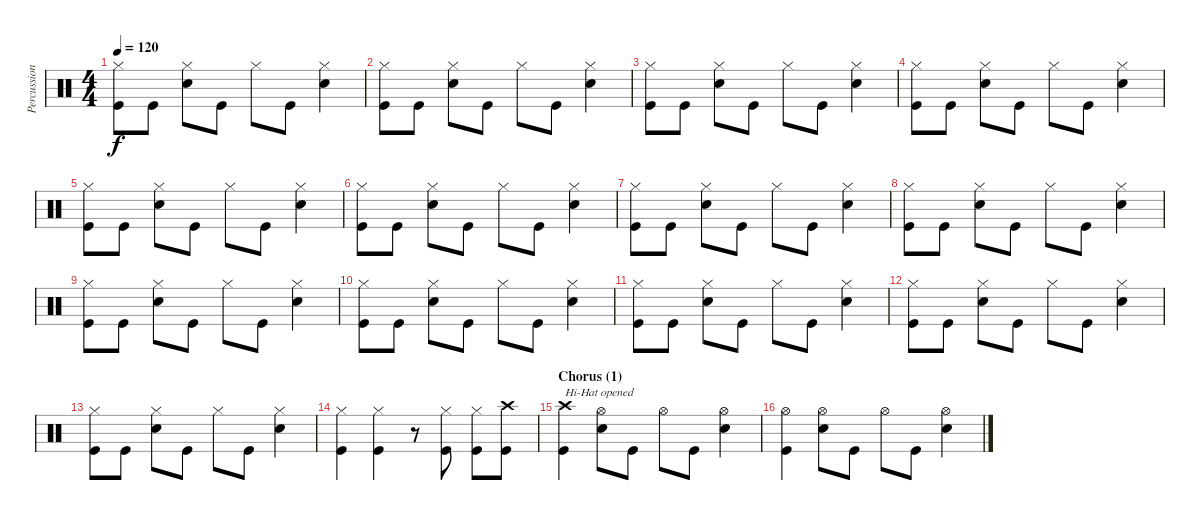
\track ("Percussion" "Percussion") {instrument percussion}
\staff {score}
\articulation defaults
\ts (4 4)
\tempo 120
\clef neutral
\ks c
("Hi-Hat (closed)" "Kick (hit)").8{dy f} "Kick (hit)".8 ("Hi-Hat (closed)" "Snare (hit) 2").8 "Kick (hit)".8 "Hi-Hat (closed)".8 "Kick (hit)".8 ("Hi-Hat (closed)" "Snare (hit) 2").4 |
("Hi-Hat (closed)" "Kick (hit)").8 "Kick (hit)".8 ("Hi-Hat (closed)" "Snare (hit) 2").8 "Kick (hit)".8 "Hi-Hat (closed)".8 "Kick (hit)".8 ("Hi-Hat (closed)" "Snare (hit) 2").4 |
("Hi-Hat (closed)" "Kick (hit)").8 "Kick (hit)".8 ("Hi-Hat (closed)" "Snare (hit) 2").8 "Kick (hit)".8 "Hi-Hat (closed)".8 "Kick (hit)".8 ("Hi-Hat (closed)" "Snare (hit) 2").4 |
("Hi-Hat (closed)" "Kick (hit)").8 "Kick (hit)".8 ("Hi-Hat (closed)" "Snare (hit) 2").8 "Kick (hit)".8 "Hi-Hat (closed)".8 "Kick (hit)".8 ("Hi-Hat (closed)" "Snare (hit) 2").4 |
("Hi-Hat (closed)" "Kick (hit)").8 "Kick (hit)".8 ("Hi-Hat (closed)" "Snare (hit) 2").8 "Kick (hit)".8 "Hi-Hat (closed)".8 "Kick (hit)".8 ("Hi-Hat (closed)" "Snare (hit) 2").4 |
("Hi-Hat (closed)" "Kick (hit)").8 "Kick (hit)".8 ("Hi-Hat (closed)" "Snare (hit) 2").8 "Kick (hit)".8 "Hi-Hat (closed)".8 "Kick (hit)".8 ("Hi-Hat (closed)" "Snare (hit) 2").4 |
("Hi-Hat (closed)" "Kick (hit)").8 "Kick (hit)".8 ("Hi-Hat (closed)" "Snare (hit) 2").8 "Kick (hit)".8 "Hi-Hat (closed)".8 "Kick (hit)".8 ("Hi-Hat (closed)" "Snare (hit) 2").4 |
("Hi-Hat (closed)" "Kick (hit)").8 "Kick (hit)".8 ("Hi-Hat (closed)" "Snare (hit) 2").8 "Kick (hit)".8 "Hi-Hat (closed)".8 "Kick (hit)".8 ("Hi-Hat (closed)" "Snare (hit) 2").4 |
("Hi-Hat (closed)" "Kick (hit)").8 "Kick (hit)".8 ("Hi-Hat (closed)" "Snare (hit) 2").8 "Kick (hit)".8 "Hi-Hat (closed)".8 "Kick (hit)".8 ("Hi-Hat (closed)" "Snare (hit) 2").4 |
("Hi-Hat (closed)" "Kick (hit)").8 "Kick (hit)".8 ("Hi-Hat (closed)" "Snare (hit) 2").8 "Kick (hit)".8 "Hi-Hat (closed)".8 "Kick (hit)".8 ("Hi-Hat (closed)" "Snare (hit) 2").4 |
("Hi-Hat (closed)" "Kick (hit)").8 "Kick (hit)".8 ("Hi-Hat (closed)" "Snare (hit) 2").8 "Kick (hit)".8 "Hi-Hat (closed)".8 "Kick (hit)".8 ("Hi-Hat (closed)" "Snare (hit) 2").4 |
("Hi-Hat (closed)" "Kick (hit)").8 "Kick (hit)".8 ("Hi-Hat (closed)" "Snare (hit) 2").8 "Kick (hit)".8 "Hi-Hat (closed)".8 "Kick (hit)".8 ("Hi-Hat (closed)" "Snare (hit) 2").4 |
("Hi-Hat (closed)" "Kick (hit)").8 "Kick (hit)".8 ("Hi-Hat (closed)" "Snare (hit) 2").8 "Kick (hit)".8 "Hi-Hat (closed)".8 "Kick (hit)".8 ("Hi-Hat (closed)" "Snare (hit) 2").4 |
("Hi-Hat (closed)" "Kick (hit)").4 ("Hi-Hat (closed)" "Kick (hit)").4 r.8 ("Hi-Hat (closed)" "Kick (hit)").8 ("Hi-Hat (closed)" "Kick (hit)").8 ("Crash high (hit)" "Kick (hit)").8 |
\section ("" "Chorus (1)")
("Crash high (hit)" "Kick (hit)").4{txt "Hi-Hat opened"} ("Hi-Hat (open)" "Snare (hit) 2").8 "Kick (hit)".8 "Hi-Hat (open)".8 "Kick (hit)".8 ("Hi-Hat (open)" "Snare (hit) 2").4 |
("Hi-Hat (open)" "Kick (hit)").4 ("Hi-Hat (open)" "Snare (hit) 2").8 "Kick (hit)".8 "Hi-Hat (open)".8 "Kick (hit)".8 ("Hi-Hat (open)" "Snare (hit) 2").4
